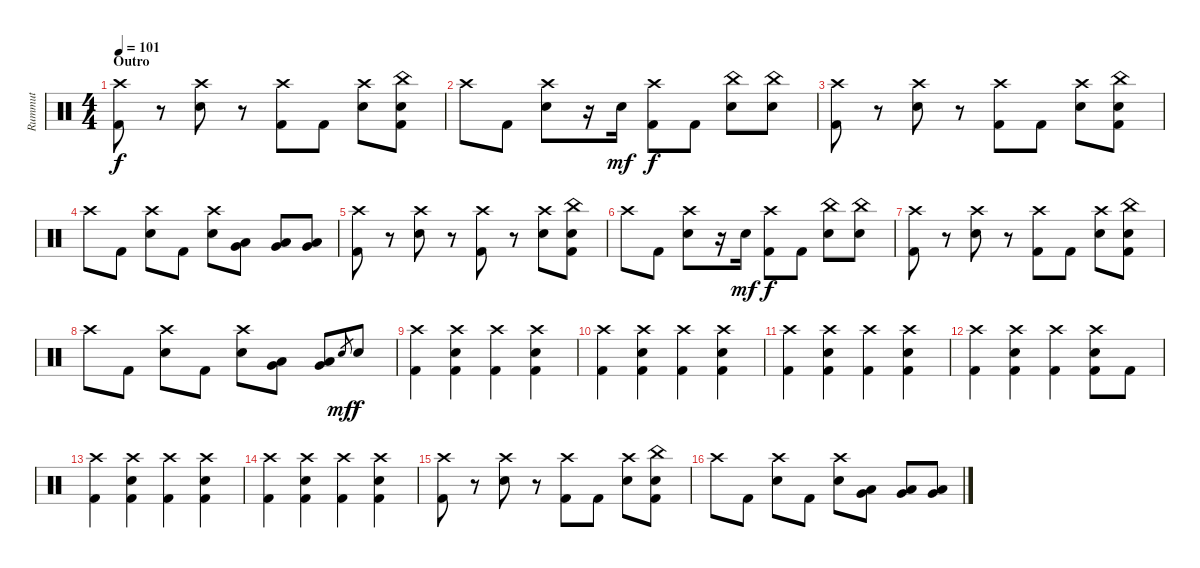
\track ("Rummut" "Rummut") {instrument percussion}
\staff {score}
\articulation defaults
\ts (4 4)
\section ("" "Outro")
\tempo 101
\clef neutral
\ks c
("Crash high (hit)" "Kick (hit) 2").8{dy f} r.8 ("Crash high (hit)" "Electric Snare (hit)").8 r.8 ("Crash high (hit)" "Kick (hit) 2").8 "Kick (hit) 2".8 ("Crash high (hit)" "Electric Snare (hit)").8 ("China (hit)" "Electric Snare (hit)" "Kick (hit) 2").8 |
"Crash high (hit)".8 "Kick (hit) 2".8 ("Crash high (hit)" "Electric Snare (hit)").8 r.16 "Electric Snare (hit)".16{dy mf} ("Crash high (hit)" "Kick (hit) 2").8{dy f} "Kick (hit) 2".8 ("China (hit)" "Electric Snare (hit)").8 ("China (hit)" "Electric Snare (hit)").8 |
("Crash high (hit)" "Kick (hit) 2").8 r.8 ("Crash high (hit)" "Electric Snare (hit)").8 r.8 ("Crash high (hit)" "Kick (hit) 2").8 "Kick (hit) 2".8 ("Crash high (hit)" "Electric Snare (hit)").8 ("China (hit)" "Electric Snare (hit)" "Kick (hit) 2").8 |
"Crash high (hit)".8 "Kick (hit) 2".8 ("Crash high (hit)" "Electric Snare (hit)").8 "Kick (hit) 2".8 ("Crash high (hit)" "Electric Snare (hit)").8 ("Very Low Tom (hit)" "Low Floor Tom (hit)").8 ("Very Low Tom (hit)" "Low Floor Tom (hit)").8 ("Very Low Tom (hit)" "Low Floor Tom (hit)").8 |
("Crash high (hit)" "Kick (hit) 2").8 r.8 ("Crash high (hit)" "Electric Snare (hit)").8 r.8 ("Crash high (hit)" "Kick (hit) 2").8 r.8 ("Crash high (hit)" "Electric Snare (hit)").8 ("China (hit)" "Electric Snare (hit)" "Kick (hit) 2").8 |
"Crash high (hit)".8 "Kick (hit) 2".8 ("Crash high (hit)" "Electric Snare (hit)").8 r.16 "Electric Snare (hit)".16{dy mf} ("Crash high (hit)" "Kick (hit) 2").8{dy f} "Kick (hit) 2".8 ("China (hit)" "Electric Snare (hit)").8 ("China (hit)" "Electric Snare (hit)").8 |
("Crash high (hit)" "Kick (hit) 2").8 r.8 ("Crash high (hit)" "Electric Snare (hit)").8 r.8 ("Crash high (hit)" "Kick (hit) 2").8 "Kick (hit) 2".8 ("Crash high (hit)" "Electric Snare (hit)").8 ("China (hit)" "Electric Snare (hit)" "Kick (hit) 2").8 |
"Crash high (hit)".8 "Kick (hit) 2".8 ("Crash high (hit)" "Electric Snare (hit)").8 "Kick (hit) 2".8 ("Crash high (hit)" "Electric Snare (hit)").8 ("Very Low Tom (hit)" "Low Floor Tom (hit)").8 ("Very Low Tom (hit)" "Low Floor Tom (hit)").8 "Electric Snare (hit)".8{gr dy mf} "Electric Snare (hit)".8{dy f} |
("Crash high (hit)" "Kick (hit) 2").4 ("Crash high (hit)" "Electric Snare (hit)" "Kick (hit) 2").4 ("Crash high (hit)" "Kick (hit) 2").4 ("Crash high (hit)" "Electric Snare (hit)" "Kick (hit) 2").4 |
("Crash high (hit)" "Kick (hit) 2").4 ("Crash high (hit)" "Electric Snare (hit)" "Kick (hit) 2").4 ("Crash high (hit)" "Kick (hit) 2").4 ("Crash high (hit)" "Electric Snare (hit)" "Kick (hit) 2").4 |
("Crash high (hit)" "Kick (hit) 2").4 ("Crash high (hit)" "Electric Snare (hit)" "Kick (hit) 2").4 ("Crash high (hit)" "Kick (hit) 2").4 ("Crash high (hit)" "Electric Snare (hit)" "Kick (hit) 2").4 |
("Crash high (hit)" "Kick (hit) 2").4 ("Crash high (hit)" "Electric Snare (hit)" "Kick (hit) 2").4 ("Crash high (hit)" "Kick (hit) 2").4 ("Crash high (hit)" "Electric Snare (hit)" "Kick (hit) 2").8 "Kick (hit) 2".8 |
("Crash high (hit)" "Kick (hit) 2").4 ("Crash high (hit)" "Electric Snare (hit)" "Kick (hit) 2").4 ("Crash high (hit)" "Kick (hit) 2").4 ("Crash high (hit)" "Electric Snare (hit)" "Kick (hit) 2").4 |
("Crash high (hit)" "Kick (hit) 2").4 ("Crash high (hit)" "Electric Snare (hit)" "Kick (hit) 2").4 ("Crash high (hit)" "Kick (hit) 2").4 ("Crash high (hit)" "Electric Snare (hit)" "Kick (hit) 2").4 |
("Crash high (hit)" "Kick (hit) 2").8 r.8 ("Crash high (hit)" "Electric Snare (hit)").8 r.8 ("Crash high (hit)" "Kick (hit) 2").8 "Kick (hit) 2".8 ("Crash high (hit)" "Electric Snare (hit)").8 ("China (hit)" "Electric Snare (hit)" "Kick (hit) 2").8 |
"Crash high (hit)".8 "Kick (hit) 2".8 ("Crash high (hit)" "Electric Snare (hit)").8 "Kick (hit) 2".8 ("Crash high (hit)" "Electric Snare (hit)").8 ("Very Low Tom (hit)" "Low Floor Tom (hit)").8 ("Very Low Tom (hit)" "Low Floor Tom (hit)").8 ("Very Low Tom (hit)" "Low Floor Tom (hit)").8
